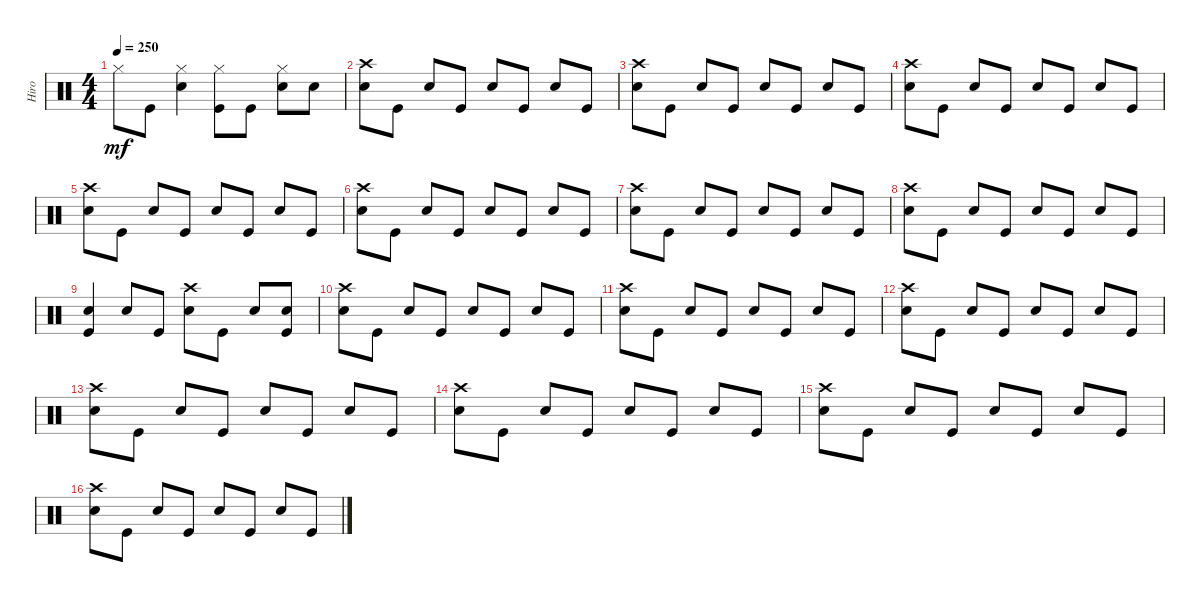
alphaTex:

\track ("Hiro" "Hiro") {instrument percussion}
\staff {score}
\articulation defaults
\ts (4 4)
\tempo 250
\clef neutral
\ks c "Hi-Hat (closed)".8{dy mf} "Kick (hit)".8
("Hi-Hat (closed)" "Electric Snare (hit)").4 ("Hi-Hat (closed)" "Kick (hit)").8 "Kick (hit)".8 ("Hi-Hat (closed)" "Electric Snare (hit)").8 "Electric Snare (hit)".8 |
("Crash high (hit)" "Electric Snare (hit)").8 "Kick (hit)".8 "Electric Snare (hit)".8 "Kick (hit)".8 "Electric Snare (hit)".8 "Kick (hit)".8 "Electric Snare (hit)".8 "Kick (hit)".8 |
("Electric Snare (hit)" "Crash high (hit)").8 "Kick (hit)".8 "Electric Snare (hit)".8 "Kick (hit)".8 "Electric Snare (hit)".8 "Kick (hit)".8 "Electric Snare (hit)".8 "Kick (hit)".8 |
("Electric Snare (hit)" "Crash high (hit)").8 "Kick (hit)".8 "Electric Snare (hit)".8 "Kick (hit)".8 "Electric Snare (hit)".8 "Kick (hit)".8 "Electric Snare (hit)".8 "Kick (hit)".8 |
("Crash high (hit)" "Electric Snare (hit)").8 "Kick (hit)".8 "Electric Snare (hit)".8 "Kick (hit)".8 "Electric Snare (hit)".8 "Kick (hit)".8 "Electric Snare (hit)".8 "Kick (hit)".8 |
("Electric Snare (hit)" "Crash high (hit)").8 "Kick (hit)".8 "Electric Snare (hit)".8 "Kick (hit)".8 "Electric Snare (hit)".8 "Kick (hit)".8 "Electric Snare (hit)".8 "Kick (hit)".8 |
("Crash high (hit)" "Electric Snare (hit)").8 "Kick (hit)".8 "Electric Snare (hit)".8 "Kick (hit)".8 "Electric Snare (hit)".8 "Kick (hit)".8 "Electric Snare (hit)".8 "Kick (hit)".8 |
("Electric Snare (hit)" "Crash high (hit)").8 "Kick (hit)".8 "Electric Snare (hit)".8 "Kick (hit)".8 "Electric Snare (hit)".8 "Kick (hit)".8 "Electric Snare (hit)".8 "Kick (hit)".8 |
("Electric Snare (hit)" "Kick (hit)").4 "Electric Snare (hit)".8 "Kick (hit)".8 ("Electric Snare (hit)" "Crash high (hit)").8 "Kick (hit)".8 "Electric Snare (hit)".8 ("Kick (hit)" "Electric Snare (hit)").8 |
("Electric Snare (hit)" "Crash high (hit)").8 "Kick (hit)".8 "Electric Snare (hit)".8 "Kick (hit)".8 "Electric Snare (hit)".8 "Kick (hit)".8 "Electric Snare (hit)".8 "Kick (hit)".8 |
("Crash high (hit)" "Electric Snare (hit)").8 "Kick (hit)".8 "Electric Snare (hit)".8 "Kick (hit)".8 "Electric Snare (hit)".8 "Kick (hit)".8 "Electric Snare (hit)".8 "Kick (hit)".8 |
("Crash high (hit)" "Electric Snare (hit)").8 "Kick (hit)".8 "Electric Snare (hit)".8 "Kick (hit)".8 "Electric Snare (hit)".8 "Kick (hit)".8 "Electric Snare (hit)".8 "Kick (hit)".8 |
("Electric Snare (hit)" "Crash high (hit)").8 "Kick (hit)".8 "Electric Snare (hit)".8 "Kick (hit)".8 "Electric Snare (hit)".8 "Kick (hit)".8 "Electric Snare (hit)".8 "Kick (hit)".8 |
("Crash high (hit)" "Electric Snare (hit)").8 "Kick (hit)".8 "Electric Snare (hit)".8 "Kick (hit)".8 "Electric Snare (hit)".8 "Kick (hit)".8 "Electric Snare (hit)".8 "Kick (hit)".8 |
("Electric Snare (hit)" "Crash high (hit)").8 "Kick (hit)".8 "Electric Snare (hit)".8 "Kick (hit)".8 "Electric Snare (hit)".8 "Kick (hit)".8 "Electric Snare (hit)".8 "Kick (hit)".8 |
("Crash high (hit)" "Electric Snare (hit)").8 "Kick (hit)".8 "Electric Snare (hit)".8 "Kick (hit)".8 "Electric Snare (hit)".8 "Kick (hit)".8 "Electric Snare (hit)".8 "Kick (hit)".8
